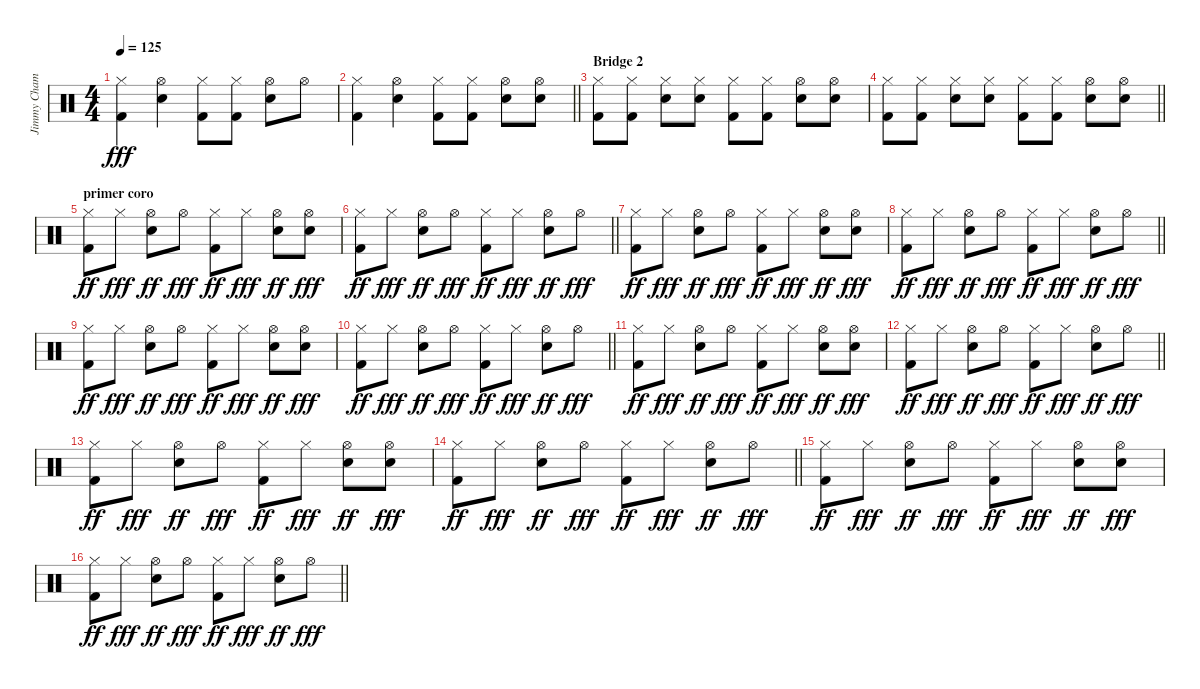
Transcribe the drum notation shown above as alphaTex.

\track ("Jimmy Chamberline" "Jimmy Cham") {instrument percussion}
\staff {score}
\articulation defaults
\ts (4 4)
\tempo 125
\clef neutral
\ks c
("Hi-Hat (closed)" "Kick (hit) 2").4{dy fff} ("Hi-Hat (open)" "Snare (hit) 2").4 ("Hi-Hat (closed)" "Kick (hit) 2").8 ("Hi-Hat (closed)" "Kick (hit) 2").8 ("Hi-Hat (open)" "Snare (hit) 2").8 "Hi-Hat (open)".8 |
\barLineRight lightlight
("Hi-Hat (closed)" "Kick (hit) 2").4 ("Hi-Hat (open)" "Snare (hit) 2").4 ("Hi-Hat (closed)" "Kick (hit) 2").8 ("Hi-Hat (closed)" "Kick (hit) 2").8 ("Hi-Hat (open)" "Snare (hit) 2").8 ("Hi-Hat (open)" "Snare (hit) 2").8 |
\section ("" "Bridge 2")
("Hi-Hat (closed)" "Kick (hit) 2").8 ("Hi-Hat (closed)" "Kick (hit) 2").8 ("Hi-Hat (closed)" "Snare (hit) 2").8 ("Hi-Hat (closed)" "Snare (hit) 2").8 ("Hi-Hat (closed)" "Kick (hit) 2").8 ("Hi-Hat (closed)" "Kick (hit) 2").8 ("Hi-Hat (open)" "Snare (hit) 2").8 ("Hi-Hat (open)" "Snare (hit) 2").8 |
\barLineRight lightlight
("Hi-Hat (closed)" "Kick (hit) 2").8 ("Hi-Hat (closed)" "Kick (hit) 2").8 ("Hi-Hat (closed)" "Snare (hit) 2").8 ("Hi-Hat (closed)" "Snare (hit) 2").8 ("Hi-Hat (closed)" "Kick (hit) 2").8 ("Hi-Hat (closed)" "Kick (hit) 2").8 ("Hi-Hat (open)" "Snare (hit) 2").8 ("Hi-Hat (open)" "Snare (hit) 2").8 |
\section ("" "primer coro")
("Hi-Hat (closed)" "Kick (hit) 2").8{dy ff} "Hi-Hat (closed)".8{dy fff} ("Hi-Hat (open)" "Snare (hit) 2").8{dy ff} "Hi-Hat (open)".8{dy fff} ("Hi-Hat (closed)" "Kick (hit) 2").8{dy ff} "Hi-Hat (closed)".8{dy fff} ("Hi-Hat (open)" "Snare (hit) 2").8{dy ff} ("Hi-Hat (open)" "Snare (hit) 2").8{dy fff} |
\barLineRight lightlight
("Hi-Hat (closed)" "Kick (hit) 2").8{dy ff} "Hi-Hat (closed)".8{dy fff} ("Hi-Hat (open)" "Snare (hit) 2").8{dy ff} "Hi-Hat (open)".8{dy fff} ("Hi-Hat (closed)" "Kick (hit) 2").8{dy ff} "Hi-Hat (closed)".8{dy fff} ("Hi-Hat (open)" "Snare (hit) 2").8{dy ff} "Hi-Hat (open)".8{dy fff} |
("Hi-Hat (closed)" "Kick (hit) 2").8{dy ff} "Hi-Hat (closed)".8{dy fff} ("Hi-Hat (open)" "Snare (hit) 2").8{dy ff} "Hi-Hat (open)".8{dy fff} ("Hi-Hat (closed)" "Kick (hit) 2").8{dy ff} "Hi-Hat (closed)".8{dy fff} ("Hi-Hat (open)" "Snare (hit) 2").8{dy ff} ("Hi-Hat (open)" "Snare (hit) 2").8{dy fff} |
\barLineRight lightlight
("Hi-Hat (closed)" "Kick (hit) 2").8{dy ff} "Hi-Hat (closed)".8{dy fff} ("Hi-Hat (open)" "Snare (hit) 2").8{dy ff} "Hi-Hat (open)".8{dy fff} ("Hi-Hat (closed)" "Kick (hit) 2").8{dy ff} "Hi-Hat (closed)".8{dy fff} ("Hi-Hat (open)" "Snare (hit) 2").8{dy ff} "Hi-Hat (open)".8{dy fff} |
("Hi-Hat (closed)" "Kick (hit) 2").8{dy ff} "Hi-Hat (closed)".8{dy fff} ("Hi-Hat (open)" "Snare (hit) 2").8{dy ff} "Hi-Hat (open)".8{dy fff} ("Hi-Hat (closed)" "Kick (hit) 2").8{dy ff} "Hi-Hat (closed)".8{dy fff} ("Hi-Hat (open)" "Snare (hit) 2").8{dy ff} ("Hi-Hat (open)" "Snare (hit) 2").8{dy fff} |
\barLineRight lightlight
("Hi-Hat (closed)" "Kick (hit) 2").8{dy ff} "Hi-Hat (closed)".8{dy fff} ("Hi-Hat (open)" "Snare (hit) 2").8{dy ff} "Hi-Hat (open)".8{dy fff} ("Hi-Hat (closed)" "Kick (hit) 2").8{dy ff} "Hi-Hat (closed)".8{dy fff} ("Hi-Hat (open)" "Snare (hit) 2").8{dy ff} "Hi-Hat (open)".8{dy fff} |
("Hi-Hat (closed)" "Kick (hit) 2").8{dy ff} "Hi-Hat (closed)".8{dy fff} ("Hi-Hat (open)" "Snare (hit) 2").8{dy ff} "Hi-Hat (open)".8{dy fff} ("Hi-Hat (closed)" "Kick (hit) 2").8{dy ff} "Hi-Hat (closed)".8{dy fff} ("Hi-Hat (open)" "Snare (hit) 2").8{dy ff} ("Hi-Hat (open)" "Snare (hit) 2").8{dy fff} |
\barLineRight lightlight
("Hi-Hat (closed)" "Kick (hit) 2").8{dy ff} "Hi-Hat (closed)".8{dy fff} ("Hi-Hat (open)" "Snare (hit) 2").8{dy ff} "Hi-Hat (open)".8{dy fff} ("Hi-Hat (closed)" "Kick (hit) 2").8{dy ff} "Hi-Hat (closed)".8{dy fff} ("Hi-Hat (open)" "Snare (hit) 2").8{dy ff} "Hi-Hat (open)".8{dy fff} |
("Hi-Hat (closed)" "Kick (hit) 2").8{dy ff} "Hi-Hat (closed)".8{dy fff} ("Hi-Hat (open)" "Snare (hit) 2").8{dy ff} "Hi-Hat (open)".8{dy fff} ("Hi-Hat (closed)" "Kick (hit) 2").8{dy ff} "Hi-Hat (closed)".8{dy fff} ("Hi-Hat (open)" "Snare (hit) 2").8{dy ff} ("Hi-Hat (open)" "Snare (hit) 2").8{dy fff} |
\barLineRight lightlight
("Hi-Hat (closed)" "Kick (hit) 2").8{dy ff} "Hi-Hat (closed)".8{dy fff} ("Hi-Hat (open)" "Snare (hit) 2").8{dy ff} "Hi-Hat (open)".8{dy fff} ("Hi-Hat (closed)" "Kick (hit) 2").8{dy ff} "Hi-Hat (closed)".8{dy fff} ("Hi-Hat (open)" "Snare (hit) 2").8{dy ff} "Hi-Hat (open)".8{dy fff} |
("Hi-Hat (closed)" "Kick (hit) 2").8{dy ff} "Hi-Hat (closed)".8{dy fff} ("Hi-Hat (open)" "Snare (hit) 2").8{dy ff} "Hi-Hat (open)".8{dy fff} ("Hi-Hat (closed)" "Kick (hit) 2").8{dy ff} "Hi-Hat (closed)".8{dy fff} ("Hi-Hat (open)" "Snare (hit) 2").8{dy ff} ("Hi-Hat (open)" "Snare (hit) 2").8{dy fff} |
\barLineRight lightlight
("Hi-Hat (closed)" "Kick (hit) 2").8{dy ff} "Hi-Hat (closed)".8{dy fff} ("Hi-Hat (open)" "Snare (hit) 2").8{dy ff} "Hi-Hat (open)".8{dy fff} ("Hi-Hat (closed)" "Kick (hit) 2").8{dy ff} "Hi-Hat (closed)".8{dy fff} ("Hi-Hat (open)" "Snare (hit) 2").8{dy ff} "Hi-Hat (open)".8{dy fff}
